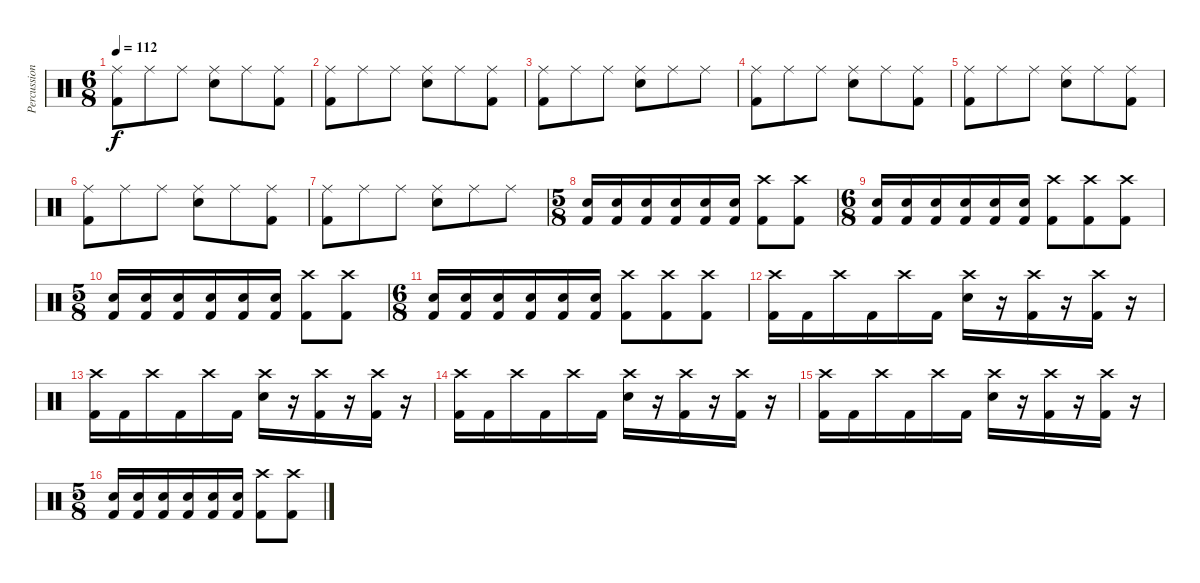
\track ("Percussion" "Percussion") {instrument percussion}
\staff {score}
\articulation defaults
\ts (6 8)
\tempo 112
\clef neutral
\ks c
("Ride (middle)" "Kick (hit) 2").8{dy f} "Ride (middle)".8 "Ride (middle)".8 ("Ride (middle)" "Electric Snare (hit)").8 "Ride (middle)".8 ("Ride (middle)" "Kick (hit) 2").8 |
("Ride (middle)" "Kick (hit) 2").8 "Ride (middle)".8 "Ride (middle)".8 ("Ride (middle)" "Electric Snare (hit)").8 "Ride (middle)".8 ("Ride (middle)" "Kick (hit) 2").8 |
("Ride (middle)" "Kick (hit) 2").8 "Ride (middle)".8 "Ride (middle)".8 ("Ride (middle)" "Electric Snare (hit)").8 "Ride (middle)".8 "Ride (middle)".8 |
("Ride (middle)" "Kick (hit) 2").8 "Ride (middle)".8 "Ride (middle)".8 ("Ride (middle)" "Electric Snare (hit)").8 "Ride (middle)".8 ("Ride (middle)" "Kick (hit) 2").8 |
("Ride (middle)" "Kick (hit) 2").8 "Ride (middle)".8 "Ride (middle)".8 ("Ride (middle)" "Electric Snare (hit)").8 "Ride (middle)".8 ("Ride (middle)" "Kick (hit) 2").8 |
("Ride (middle)" "Kick (hit) 2").8 "Ride (middle)".8 "Ride (middle)".8 ("Ride (middle)" "Electric Snare (hit)").8 "Ride (middle)".8 ("Ride (middle)" "Kick (hit) 2").8 |
("Ride (middle)" "Kick (hit) 2").8 "Ride (middle)".8 "Ride (middle)".8 ("Ride (middle)" "Electric Snare (hit)").8 "Ride (middle)".8 "Ride (middle)".8 |
\ts (5 8)
("Electric Snare (hit)" "Kick (hit) 2").16 ("Electric Snare (hit)" "Kick (hit) 2").16 ("Electric Snare (hit)" "Kick (hit) 2").16 ("Electric Snare (hit)" "Kick (hit) 2").16 ("Electric Snare (hit)" "Kick (hit) 2").16 ("Electric Snare (hit)" "Kick (hit) 2").16 ("Crash high (hit)" "Kick (hit) 2").8 ("Crash high (hit)" "Kick (hit) 2").8 |
\ts (6 8)
("Electric Snare (hit)" "Kick (hit) 2").16 ("Electric Snare (hit)" "Kick (hit) 2").16 ("Electric Snare (hit)" "Kick (hit) 2").16 ("Electric Snare (hit)" "Kick (hit) 2").16 ("Electric Snare (hit)" "Kick (hit) 2").16 ("Electric Snare (hit)" "Kick (hit) 2").16 ("Crash high (hit)" "Kick (hit) 2").8 ("Crash high (hit)" "Kick (hit) 2").8 ("Crash high (hit)" "Kick (hit) 2").8 |
\ts (5 8)
("Electric Snare (hit)" "Kick (hit) 2").16 ("Electric Snare (hit)" "Kick (hit) 2").16 ("Electric Snare (hit)" "Kick (hit) 2").16 ("Electric Snare (hit)" "Kick (hit) 2").16 ("Electric Snare (hit)" "Kick (hit) 2").16 ("Electric Snare (hit)" "Kick (hit) 2").16 ("Crash high (hit)" "Kick (hit) 2").8 ("Crash high (hit)" "Kick (hit) 2").8 |
\ts (6 8)
("Electric Snare (hit)" "Kick (hit) 2").16 ("Electric Snare (hit)" "Kick (hit) 2").16 ("Electric Snare (hit)" "Kick (hit) 2").16 ("Electric Snare (hit)" "Kick (hit) 2").16 ("Electric Snare (hit)" "Kick (hit) 2").16 ("Electric Snare (hit)" "Kick (hit) 2").16 ("Crash high (hit)" "Kick (hit) 2").8 ("Crash high (hit)" "Kick (hit) 2").8 ("Crash high (hit)" "Kick (hit) 2").8 |
("Crash high (hit)" "Kick (hit) 2").16 "Kick (hit) 2".16 "Crash high (hit)".16 "Kick (hit) 2".16 "Crash high (hit)".16 "Kick (hit) 2".16 ("Crash high (hit)" "Electric Snare (hit)").16 r.16 ("Crash high (hit)" "Kick (hit) 2").16 r.16 ("Crash high (hit)" "Kick (hit) 2").16 r.16 |
("Crash high (hit)" "Kick (hit) 2").16 "Kick (hit) 2".16 "Crash high (hit)".16 "Kick (hit) 2".16 "Crash high (hit)".16 "Kick (hit) 2".16 ("Crash high (hit)" "Electric Snare (hit)").16 r.16 ("Crash high (hit)" "Kick (hit) 2").16 r.16 ("Crash high (hit)" "Kick (hit) 2").16 r.16 |
("Crash high (hit)" "Kick (hit) 2").16 "Kick (hit) 2".16 "Crash high (hit)".16 "Kick (hit) 2".16 "Crash high (hit)".16 "Kick (hit) 2".16 ("Crash high (hit)" "Electric Snare (hit)").16 r.16 ("Crash high (hit)" "Kick (hit) 2").16 r.16 ("Crash high (hit)" "Kick (hit) 2").16 r.16 |
("Crash high (hit)" "Kick (hit) 2").16 "Kick (hit) 2".16 "Crash high (hit)".16 "Kick (hit) 2".16 "Crash high (hit)".16 "Kick (hit) 2".16 ("Crash high (hit)" "Electric Snare (hit)").16 r.16 ("Crash high (hit)" "Kick (hit) 2").16 r.16 ("Crash high (hit)" "Kick (hit) 2").16 r.16 |
\ts (5 8)
("Electric Snare (hit)" "Kick (hit) 2").16 ("Electric Snare (hit)" "Kick (hit) 2").16 ("Electric Snare (hit)" "Kick (hit) 2").16 ("Electric Snare (hit)" "Kick (hit) 2").16 ("Electric Snare (hit)" "Kick (hit) 2").16 ("Electric Snare (hit)" "Kick (hit) 2").16 ("Crash high (hit)" "Kick (hit) 2").8 ("Crash high (hit)" "Kick (hit) 2").8
